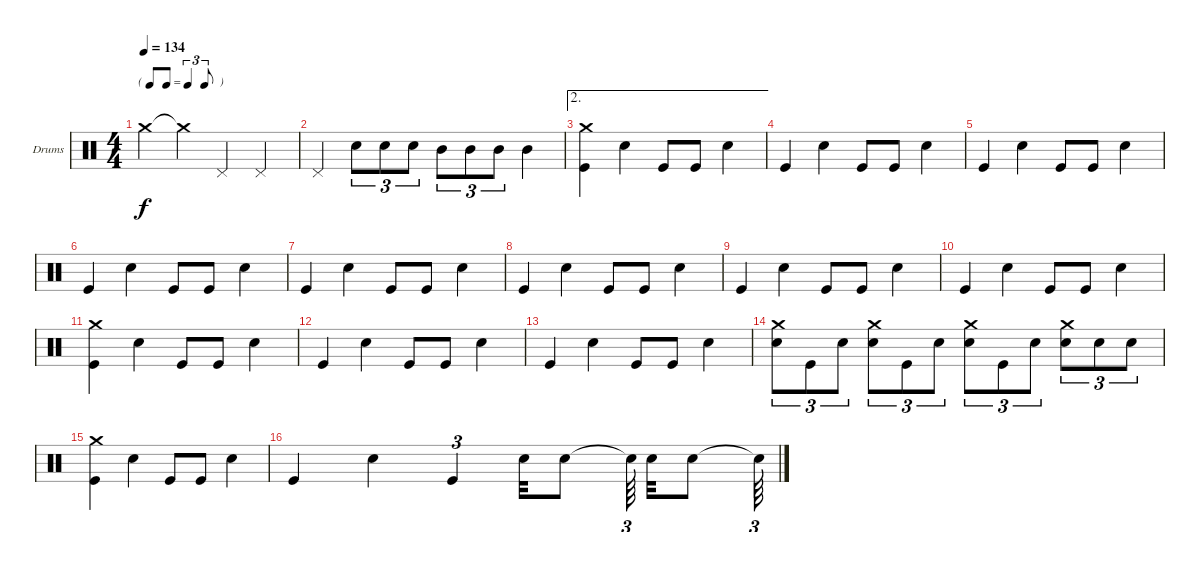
\bracketExtendMode groupsimilarinstruments
\firstSystemTrackNameOrientation horizontal
\otherSystemsTrackNameOrientation horizontal
\track ("Drumkit" "Drums") {instrument percussion}
\staff {score}
\articulation defaults
\ts (4 4)
\tf triplet8th
\tempo 134
\clef neutral
\ks c "Crash medium (hit)".4{dy f} "Crash medium (hit)"{t}.4 "Pedal Hi-Hat (hit)".4 "Pedal Hi-Hat (hit)".4
|
"Pedal Hi-Hat (hit)".4 "Snare (hit) 2".8{tu (3 2)} "Snare (hit) 2".8{tu (3 2)} "Snare (hit) 2".8{tu (3 2)} "Mid Tom (hit)".8{tu (3 2)} "Mid Tom (hit)".8{tu (3 2)} "Mid Tom (hit)".8{tu (3 2)} "Mid Tom (hit)".4 |
\ae 2
("Kick (hit)" "Crash medium (hit)").4 "Snare (hit) 2".4 "Kick (hit)".8 "Kick (hit)".8 "Snare (hit) 2".4 |
"Kick (hit)".4 "Snare (hit) 2".4 "Kick (hit)".8 "Kick (hit)".8 "Snare (hit) 2".4 |
"Kick (hit)".4 "Snare (hit) 2".4 "Kick (hit)".8 "Kick (hit)".8 "Snare (hit) 2".4 |
"Kick (hit)".4 "Snare (hit) 2".4 "Kick (hit)".8 "Kick (hit)".8 "Snare (hit) 2".4 |
"Kick (hit)".4 "Snare (hit) 2".4 "Kick (hit)".8 "Kick (hit)".8 "Snare (hit) 2".4 |
"Kick (hit)".4 "Snare (hit) 2".4 "Kick (hit)".8 "Kick (hit)".8 "Snare (hit) 2".4 |
"Kick (hit)".4 "Snare (hit) 2".4 "Kick (hit)".8 "Kick (hit)".8 "Snare (hit) 2".4 |
"Kick (hit)".4 "Snare (hit) 2".4 "Kick (hit)".8 "Kick (hit)".8 "Snare (hit) 2".4 |
("Kick (hit)" "Crash medium (hit)").4 "Snare (hit) 2".4 "Kick (hit)".8 "Kick (hit)".8 "Snare (hit) 2".4 |
"Kick (hit)".4 "Snare (hit) 2".4 "Kick (hit)".8 "Kick (hit)".8 "Snare (hit) 2".4 |
"Kick (hit)".4 "Snare (hit) 2".4 "Kick (hit)".8 "Kick (hit)".8 "Snare (hit) 2".4 |
("Snare (hit) 2" "Crash medium (hit)").8{tu (3 2)} "Kick (hit)".8{tu (3 2)} "Snare (hit) 2".8{tu (3 2)} ("Snare (hit) 2" "Crash medium (hit)").8{tu (3 2)} "Kick (hit)".8{tu (3 2)} "Snare (hit) 2".8{tu (3 2)} ("Snare (hit) 2" "Crash medium (hit)").8{tu (3 2)} "Kick (hit)".8{tu (3 2)} "Snare (hit) 2".8{tu (3 2)} ("Snare (hit) 2" "Crash medium (hit)").8{tu (3 2)} "Snare (hit) 2".8{tu (3 2)} "Snare (hit) 2".8{tu (3 2)} |
("Kick (hit)" "Crash medium (hit)").4 "Snare (hit) 2".4 "Kick (hit)".8 "Kick (hit)".8 "Snare (hit) 2".4 |
"Kick (hit)".4 "Snare (hit) 2".4 "Kick (hit)".4{tu (3 2)} "Snare (hit) 2".32 "Snare (hit) 2".8 "Snare (hit) 2"{t}.64{tu (3 2)} "Snare (hit) 2".32 "Snare (hit) 2".8 "Snare (hit) 2"{t}.64{tu (3 2)}
